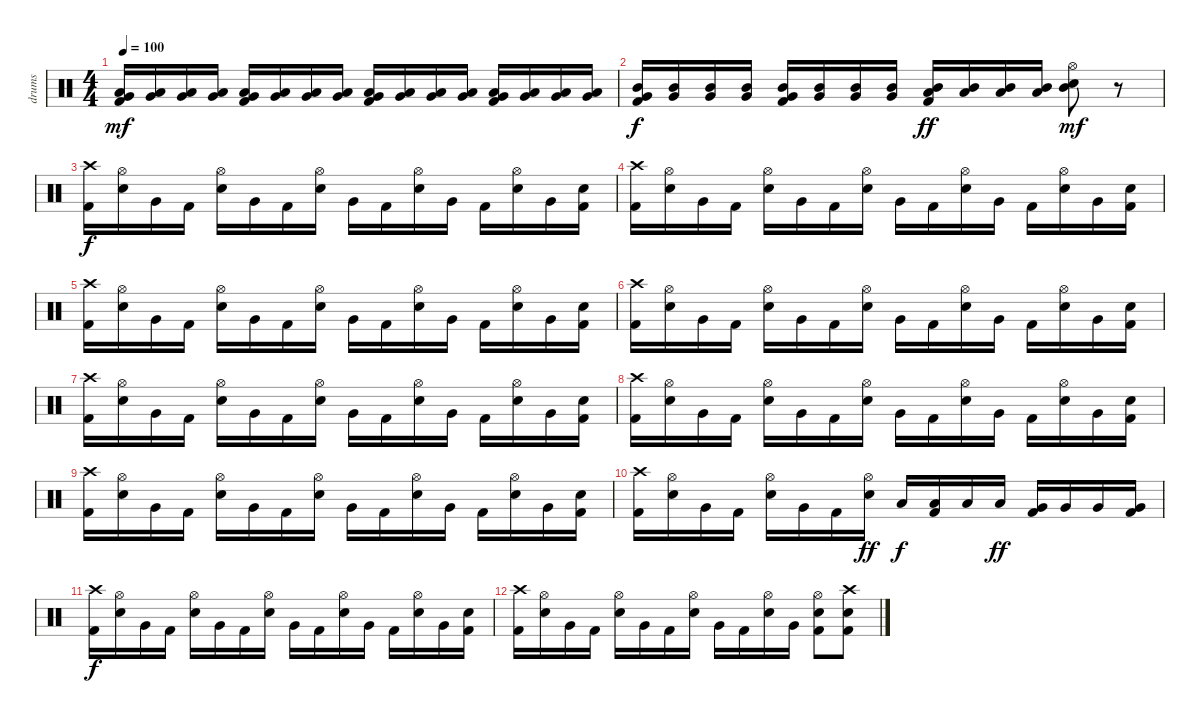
\track ("drums" "drums") {instrument percussion}
\staff {score}
\articulation defaults
\ts (4 4)
\tempo 100
\clef neutral
\ks c
("Low Tom (hit)" "Very Low Tom (hit)" "Kick (hit) 2").16{dy mf} ("Low Tom (hit)" "Very Low Tom (hit)").16 ("Low Tom (hit)" "Very Low Tom (hit)").16 ("Low Tom (hit)" "Very Low Tom (hit)").16 ("Low Tom (hit)" "Very Low Tom (hit)" "Kick (hit) 2").16 ("Low Tom (hit)" "Very Low Tom (hit)").16 ("Low Tom (hit)" "Very Low Tom (hit)").16 ("Low Tom (hit)" "Very Low Tom (hit)").16 ("Low Tom (hit)" "Very Low Tom (hit)" "Kick (hit) 2").16 ("Low Tom (hit)" "Very Low Tom (hit)").16 ("Low Tom (hit)" "Very Low Tom (hit)").16 ("Low Tom (hit)" "Very Low Tom (hit)").16 ("Low Tom (hit)" "Very Low Tom (hit)" "Kick (hit) 2").16 ("Low Tom (hit)" "Very Low Tom (hit)").16 ("Low Tom (hit)" "Very Low Tom (hit)").16 ("Low Tom (hit)" "Very Low Tom (hit)").16 |
("Mid Tom (hit)" "Very Low Tom (hit)" "Kick (hit) 2").16{dy f} ("Mid Tom (hit)" "Very Low Tom (hit)").16 ("Mid Tom (hit)" "Very Low Tom (hit)").16 ("Mid Tom (hit)" "Very Low Tom (hit)").16 ("Mid Tom (hit)" "Very Low Tom (hit)" "Kick (hit) 2").16 ("Mid Tom (hit)" "Very Low Tom (hit)").16 ("Mid Tom (hit)" "Very Low Tom (hit)").16 ("Mid Tom (hit)" "Very Low Tom (hit)").16 ("Mid Tom (hit)" "Low Tom (hit)" "Kick (hit) 2").16{dy ff} ("Mid Tom (hit)" "Low Tom (hit)").16 ("Mid Tom (hit)" "Low Tom (hit)").16 ("Mid Tom (hit)" "Low Tom (hit)").16 ("Hi-Hat (open)" "Electric Snare (hit)" "Mid Tom (hit)").8{dy mf} r.8 |
("Crash high (hit)" "Kick (hit) 2").16{dy f} ("Hi-Hat (open)" "Electric Snare (hit)").16 "Very Low Tom (hit)".16 "Kick (hit) 2".16 ("Hi-Hat (open)" "Electric Snare (hit)").16 "Very Low Tom (hit)".16 "Kick (hit) 2".16 ("Hi-Hat (open)" "Electric Snare (hit)").16 "Very Low Tom (hit)".16 "Kick (hit) 2".16 ("Hi-Hat (open)" "Electric Snare (hit)").16 "Very Low Tom (hit)".16 "Kick (hit) 2".16 ("Hi-Hat (open)" "Electric Snare (hit)").16 "Very Low Tom (hit)".16 ("Electric Snare (hit)" "Kick (hit) 2").16 |
("Crash high (hit)" "Kick (hit) 2").16 ("Hi-Hat (open)" "Electric Snare (hit)").16 "Very Low Tom (hit)".16 "Kick (hit) 2".16 ("Hi-Hat (open)" "Electric Snare (hit)").16 "Very Low Tom (hit)".16 "Kick (hit) 2".16 ("Hi-Hat (open)" "Electric Snare (hit)").16 "Very Low Tom (hit)".16 "Kick (hit) 2".16 ("Hi-Hat (open)" "Electric Snare (hit)").16 "Very Low Tom (hit)".16 "Kick (hit) 2".16 ("Hi-Hat (open)" "Electric Snare (hit)").16 "Very Low Tom (hit)".16 ("Electric Snare (hit)" "Kick (hit) 2").16 |
("Crash high (hit)" "Kick (hit) 2").16 ("Hi-Hat (open)" "Electric Snare (hit)").16 "Very Low Tom (hit)".16 "Kick (hit) 2".16 ("Hi-Hat (open)" "Electric Snare (hit)").16 "Very Low Tom (hit)".16 "Kick (hit) 2".16 ("Hi-Hat (open)" "Electric Snare (hit)").16 "Very Low Tom (hit)".16 "Kick (hit) 2".16 ("Hi-Hat (open)" "Electric Snare (hit)").16 "Very Low Tom (hit)".16 "Kick (hit) 2".16 ("Hi-Hat (open)" "Electric Snare (hit)").16 "Very Low Tom (hit)".16 ("Electric Snare (hit)" "Kick (hit) 2").16 |
("Crash high (hit)" "Kick (hit) 2").16 ("Hi-Hat (open)" "Electric Snare (hit)").16 "Very Low Tom (hit)".16 "Kick (hit) 2".16 ("Hi-Hat (open)" "Electric Snare (hit)").16 "Very Low Tom (hit)".16 "Kick (hit) 2".16 ("Hi-Hat (open)" "Electric Snare (hit)").16 "Very Low Tom (hit)".16 "Kick (hit) 2".16 ("Hi-Hat (open)" "Electric Snare (hit)").16 "Very Low Tom (hit)".16 "Kick (hit) 2".16 ("Hi-Hat (open)" "Electric Snare (hit)").16 "Very Low Tom (hit)".16 ("Electric Snare (hit)" "Kick (hit) 2").16 |
("Crash high (hit)" "Kick (hit) 2").16 ("Hi-Hat (open)" "Electric Snare (hit)").16 "Very Low Tom (hit)".16 "Kick (hit) 2".16 ("Hi-Hat (open)" "Electric Snare (hit)").16 "Very Low Tom (hit)".16 "Kick (hit) 2".16 ("Hi-Hat (open)" "Electric Snare (hit)").16 "Very Low Tom (hit)".16 "Kick (hit) 2".16 ("Hi-Hat (open)" "Electric Snare (hit)").16 "Very Low Tom (hit)".16 "Kick (hit) 2".16 ("Hi-Hat (open)" "Electric Snare (hit)").16 "Very Low Tom (hit)".16 ("Electric Snare (hit)" "Kick (hit) 2").16 |
("Crash high (hit)" "Kick (hit) 2").16 ("Hi-Hat (open)" "Electric Snare (hit)").16 "Very Low Tom (hit)".16 "Kick (hit) 2".16 ("Hi-Hat (open)" "Electric Snare (hit)").16 "Very Low Tom (hit)".16 "Kick (hit) 2".16 ("Hi-Hat (open)" "Electric Snare (hit)").16 "Very Low Tom (hit)".16 "Kick (hit) 2".16 ("Hi-Hat (open)" "Electric Snare (hit)").16 "Very Low Tom (hit)".16 "Kick (hit) 2".16 ("Hi-Hat (open)" "Electric Snare (hit)").16 "Very Low Tom (hit)".16 ("Electric Snare (hit)" "Kick (hit) 2").16 |
("Crash high (hit)" "Kick (hit) 2").16 ("Hi-Hat (open)" "Electric Snare (hit)").16 "Very Low Tom (hit)".16 "Kick (hit) 2".16 ("Hi-Hat (open)" "Electric Snare (hit)").16 "Very Low Tom (hit)".16 "Kick (hit) 2".16 ("Hi-Hat (open)" "Electric Snare (hit)").16 "Very Low Tom (hit)".16 "Kick (hit) 2".16 ("Hi-Hat (open)" "Electric Snare (hit)").16 "Very Low Tom (hit)".16 "Kick (hit) 2".16 ("Hi-Hat (open)" "Electric Snare (hit)").16 "Very Low Tom (hit)".16 ("Electric Snare (hit)" "Kick (hit) 2").16 |
("Crash high (hit)" "Kick (hit) 2").16 ("Hi-Hat (open)" "Electric Snare (hit)").16 "Very Low Tom (hit)".16 "Kick (hit) 2".16 ("Hi-Hat (open)" "Electric Snare (hit)").16 "Very Low Tom (hit)".16 "Kick (hit) 2".16 ("Hi-Hat (open)" "Electric Snare (hit)").16{dy ff} "Low Floor Tom (hit)".16{dy f} ("Low Floor Tom (hit)" "Kick (hit) 2").16 "Low Floor Tom (hit)".16 "Low Floor Tom (hit)".16{dy ff} ("Very Low Tom (hit)" "Kick (hit) 2").16 "Very Low Tom (hit)".16 "Very Low Tom (hit)".16 ("Very Low Tom (hit)" "Kick (hit) 2").16 |
("Crash high (hit)" "Kick (hit) 2").16{dy f} ("Hi-Hat (open)" "Electric Snare (hit)").16 "Very Low Tom (hit)".16 "Kick (hit) 2".16 ("Hi-Hat (open)" "Electric Snare (hit)").16 "Very Low Tom (hit)".16 "Kick (hit) 2".16 ("Hi-Hat (open)" "Electric Snare (hit)").16 "Very Low Tom (hit)".16 "Kick (hit) 2".16 ("Hi-Hat (open)" "Electric Snare (hit)").16 "Very Low Tom (hit)".16 "Kick (hit) 2".16 ("Hi-Hat (open)" "Electric Snare (hit)").16 "Very Low Tom (hit)".16 ("Electric Snare (hit)" "Kick (hit) 2").16 |
("Crash high (hit)" "Kick (hit) 2").16 ("Hi-Hat (open)" "Electric Snare (hit)").16 "Very Low Tom (hit)".16 "Kick (hit) 2".16 ("Hi-Hat (open)" "Electric Snare (hit)").16 "Very Low Tom (hit)".16 "Kick (hit) 2".16 ("Hi-Hat (open)" "Electric Snare (hit)").16 "Very Low Tom (hit)".16 "Kick (hit) 2".16 ("Hi-Hat (open)" "Electric Snare (hit)").16 "Very Low Tom (hit)".16 ("Hi-Hat (open)" "Electric Snare (hit)" "Kick (hit) 2").8 ("Crash high (hit)" "Electric Snare (hit)" "Kick (hit) 2").8
